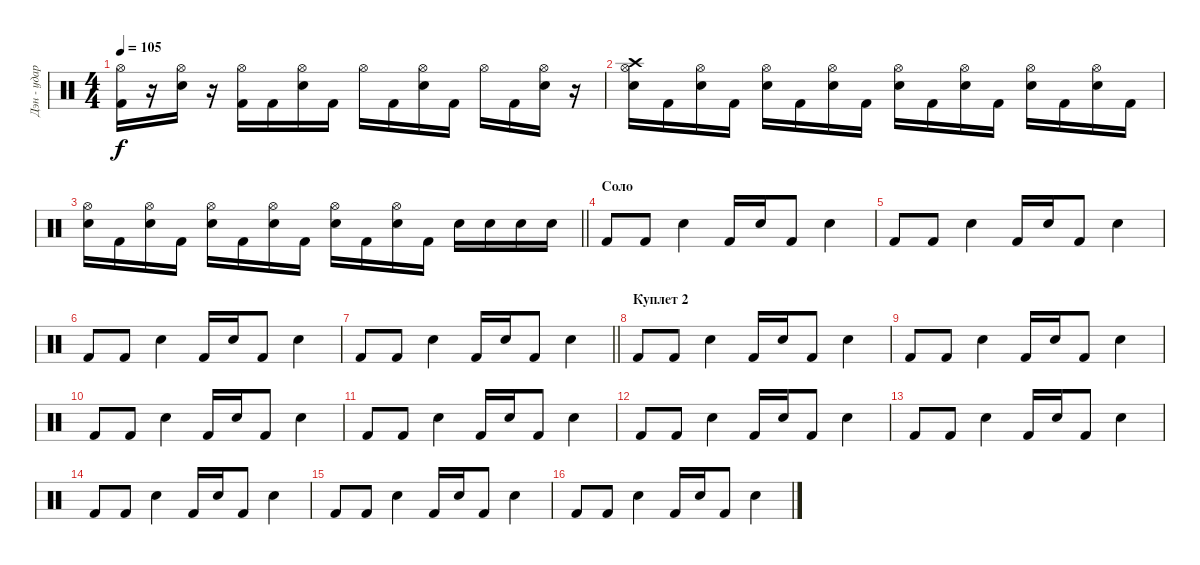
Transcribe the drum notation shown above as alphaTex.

\track ("Дэн - ударные" "Дэн - удар") {instrument percussion}
\staff {score}
\articulation defaults
\ts (4 4)
\tempo 105
\clef neutral
\ks c
("Hi-Hat (open)" "Kick (hit) 2").16{dy f} r.16 ("Hi-Hat (open)" "Electric Snare (hit)").16 r.16 ("Hi-Hat (open)" "Kick (hit) 2").16 "Kick (hit) 2".16 ("Hi-Hat (open)" "Electric Snare (hit)").16 "Kick (hit) 2".16 "Hi-Hat (open)".16 "Kick (hit) 2".16 ("Hi-Hat (open)" "Electric Snare (hit)").16 "Kick (hit) 2".16 "Hi-Hat (open)".16 "Kick (hit) 2".16 ("Hi-Hat (open)" "Electric Snare (hit)").16 r.16 |
("Crash high (hit)" "Hi-Hat (open)" "Electric Snare (hit)").16 "Kick (hit) 2".16 ("Hi-Hat (open)" "Electric Snare (hit)").16 "Kick (hit) 2".16 ("Hi-Hat (open)" "Electric Snare (hit)").16 "Kick (hit) 2".16 ("Hi-Hat (open)" "Electric Snare (hit)").16 "Kick (hit) 2".16 ("Hi-Hat (open)" "Electric Snare (hit)").16 "Kick (hit) 2".16 ("Hi-Hat (open)" "Electric Snare (hit)").16 "Kick (hit) 2".16 ("Hi-Hat (open)" "Electric Snare (hit)").16 "Kick (hit) 2".16 ("Hi-Hat (open)" "Electric Snare (hit)").16 "Kick (hit) 2".16 |
\barLineRight lightlight
("Hi-Hat (open)" "Electric Snare (hit)").16 "Kick (hit) 2".16 ("Hi-Hat (open)" "Electric Snare (hit)").16 "Kick (hit) 2".16 ("Hi-Hat (open)" "Electric Snare (hit)").16 "Kick (hit) 2".16 ("Hi-Hat (open)" "Electric Snare (hit)").16 "Kick (hit) 2".16 ("Hi-Hat (open)" "Electric Snare (hit)").16 "Kick (hit) 2".16 ("Hi-Hat (open)" "Electric Snare (hit)").16 "Kick (hit) 2".16 "Electric Snare (hit)".16 "Electric Snare (hit)".16 "Electric Snare (hit)".16 "Electric Snare (hit)".16 |
\section ("" "Соло")
"Kick (hit) 2".8 "Kick (hit) 2".8 "Electric Snare (hit)".4 "Kick (hit) 2".16 "Electric Snare (hit)".16 "Kick (hit) 2".8 "Electric Snare (hit)".4 |
"Kick (hit) 2".8 "Kick (hit) 2".8 "Electric Snare (hit)".4 "Kick (hit) 2".16 "Electric Snare (hit)".16 "Kick (hit) 2".8 "Electric Snare (hit)".4 |
"Kick (hit) 2".8 "Kick (hit) 2".8 "Electric Snare (hit)".4 "Kick (hit) 2".16 "Electric Snare (hit)".16 "Kick (hit) 2".8 "Electric Snare (hit)".4 |
\barLineRight lightlight "Kick (hit) 2".8 "Kick (hit) 2".8 "Electric Snare (hit)".4 "Kick (hit) 2".16 "Electric Snare (hit)".16 "Kick (hit) 2".8 "Electric Snare (hit)".4
|
\section ("" "Куплет 2")
"Kick (hit) 2".8 "Kick (hit) 2".8 "Electric Snare (hit)".4 "Kick (hit) 2".16 "Electric Snare (hit)".16 "Kick (hit) 2".8 "Electric Snare (hit)".4 |
"Kick (hit) 2".8 "Kick (hit) 2".8 "Electric Snare (hit)".4 "Kick (hit) 2".16 "Electric Snare (hit)".16 "Kick (hit) 2".8 "Electric Snare (hit)".4 |
"Kick (hit) 2".8 "Kick (hit) 2".8 "Electric Snare (hit)".4 "Kick (hit) 2".16 "Electric Snare (hit)".16 "Kick (hit) 2".8 "Electric Snare (hit)".4 |
"Kick (hit) 2".8 "Kick (hit) 2".8 "Electric Snare (hit)".4 "Kick (hit) 2".16 "Electric Snare (hit)".16 "Kick (hit) 2".8 "Electric Snare (hit)".4 |
"Kick (hit) 2".8 "Kick (hit) 2".8 "Electric Snare (hit)".4 "Kick (hit) 2".16 "Electric Snare (hit)".16 "Kick (hit) 2".8 "Electric Snare (hit)".4 |
"Kick (hit) 2".8 "Kick (hit) 2".8 "Electric Snare (hit)".4 "Kick (hit) 2".16 "Electric Snare (hit)".16 "Kick (hit) 2".8 "Electric Snare (hit)".4 |
"Kick (hit) 2".8 "Kick (hit) 2".8 "Electric Snare (hit)".4 "Kick (hit) 2".16 "Electric Snare (hit)".16 "Kick (hit) 2".8 "Electric Snare (hit)".4 |
"Kick (hit) 2".8 "Kick (hit) 2".8 "Electric Snare (hit)".4 "Kick (hit) 2".16 "Electric Snare (hit)".16 "Kick (hit) 2".8 "Electric Snare (hit)".4 |
"Kick (hit) 2".8 "Kick (hit) 2".8 "Electric Snare (hit)".4 "Kick (hit) 2".16 "Electric Snare (hit)".16 "Kick (hit) 2".8 "Electric Snare (hit)".4
